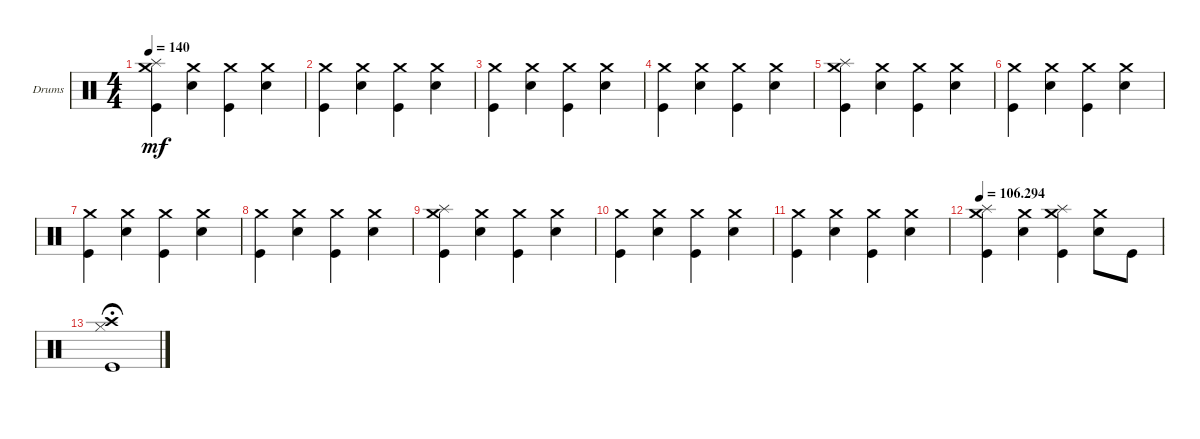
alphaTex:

\defaultSystemsLayout 4
\bracketExtendMode groupsimilarinstruments
\firstSystemTrackNameOrientation horizontal
\otherSystemsTrackNameOrientation horizontal
\track ("Drumkit" "Drums") {instrument percussion}
\staff {score}
\articulation defaults
\ts (4 4)
\tempo 140
\clef neutral
\ks c
("Splash (hit)" "Kick (hit)" "Crash medium (hit)").4{dy mf} ("Snare (hit) 2" "Crash medium (hit)").4 ("Kick (hit)" "Crash medium (hit)").4 ("Snare (hit) 2" "Crash medium (hit)").4 |
("Kick (hit)" "Crash medium (hit)").4 ("Snare (hit) 2" "Crash medium (hit)").4 ("Kick (hit)" "Crash medium (hit)").4 ("Snare (hit) 2" "Crash medium (hit)").4 |
("Kick (hit)" "Crash medium (hit)").4 ("Snare (hit) 2" "Crash medium (hit)").4 ("Kick (hit)" "Crash medium (hit)").4 ("Snare (hit) 2" "Crash medium (hit)").4 |
("Kick (hit)" "Crash medium (hit)").4 ("Snare (hit) 2" "Crash medium (hit)").4 ("Kick (hit)" "Crash medium (hit)").4 ("Snare (hit) 2" "Crash medium (hit)").4 |
("Splash (hit)" "Kick (hit)" "Crash medium (hit)").4 ("Snare (hit) 2" "Crash medium (hit)").4 ("Kick (hit)" "Crash medium (hit)").4 ("Snare (hit) 2" "Crash medium (hit)").4 |
("Kick (hit)" "Crash medium (hit)").4 ("Snare (hit) 2" "Crash medium (hit)").4 ("Kick (hit)" "Crash medium (hit)").4 ("Snare (hit) 2" "Crash medium (hit)").4 |
("Kick (hit)" "Crash medium (hit)").4 ("Snare (hit) 2" "Crash medium (hit)").4 ("Kick (hit)" "Crash medium (hit)").4 ("Snare (hit) 2" "Crash medium (hit)").4 |
("Kick (hit)" "Crash medium (hit)").4 ("Snare (hit) 2" "Crash medium (hit)").4 ("Kick (hit)" "Crash medium (hit)").4 ("Snare (hit) 2" "Crash medium (hit)").4 |
("Splash (hit)" "Kick (hit)" "Crash medium (hit)").4 ("Snare (hit) 2" "Crash medium (hit)").4 ("Kick (hit)" "Crash medium (hit)").4 ("Snare (hit) 2" "Crash medium (hit)").4 |
("Kick (hit)" "Crash medium (hit)").4 ("Snare (hit) 2" "Crash medium (hit)").4 ("Kick (hit)" "Crash medium (hit)").4 ("Snare (hit) 2" "Crash medium (hit)").4 |
("Kick (hit)" "Crash medium (hit)").4 ("Snare (hit) 2" "Crash medium (hit)").4 ("Kick (hit)" "Crash medium (hit)").4 ("Snare (hit) 2" "Crash medium (hit)").4 |
\tempo
106.294 ("Kick (hit)" "Crash medium (hit)" "Splash (hit)").4 ("Snare (hit) 2" "Crash medium (hit)").4 ("Kick (hit)" "Crash medium (hit)" "Splash (hit)").4 ("Snare (hit) 2" "Crash medium (hit)").8 "Kick (hit)".8 |
("Kick (hit)" "Crash high (hit)" "Hi-Hat (closed)").1{fermata (medium 1)}
